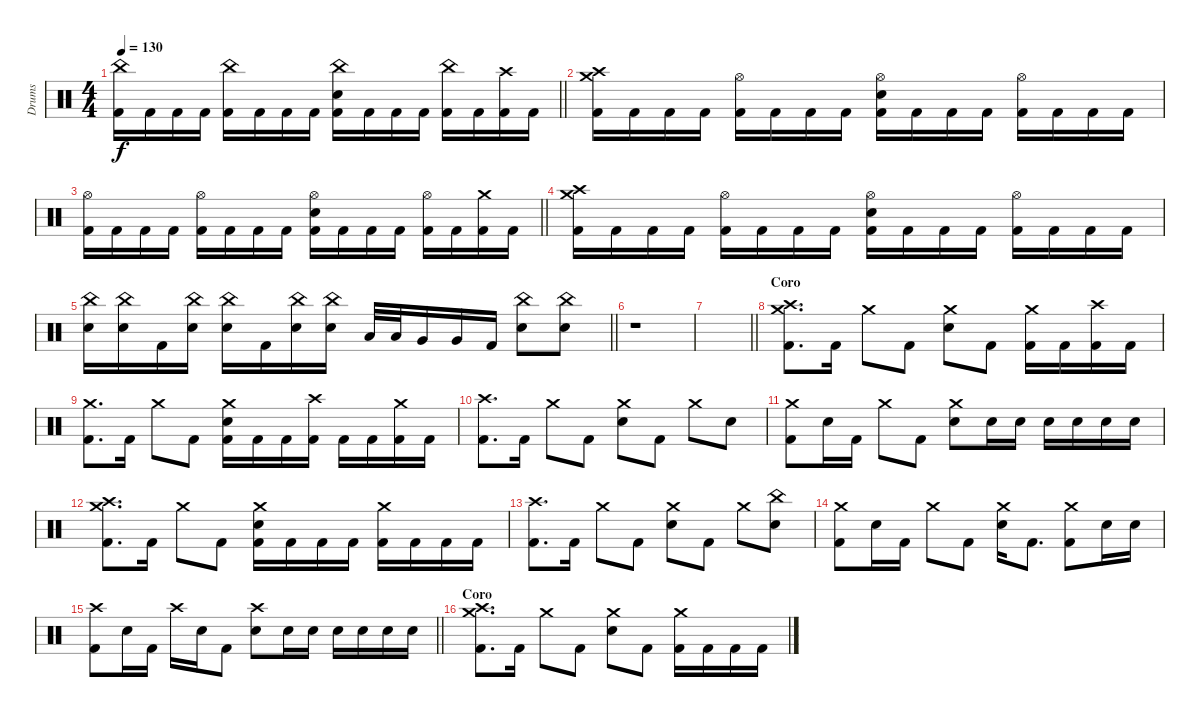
\track ("Drums" "Drums") {instrument percussion}
\staff {score}
\articulation defaults
\ts (4 4)
\tempo 130
\clef neutral
\barLineRight lightlight
\ks c
("China (hit)" "Kick (hit) 2").16{dy f} "Kick (hit) 2".16 "Kick (hit) 2".16 "Kick (hit) 2".16 ("China (hit)" "Kick (hit) 2").16 "Kick (hit) 2".16 "Kick (hit) 2".16 "Kick (hit) 2".16 ("China (hit)" "Electric Snare (hit)" "Kick (hit) 2").16 "Kick (hit) 2".16 "Kick (hit) 2".16 "Kick (hit) 2".16 ("China (hit)" "Kick (hit) 2").16 "Kick (hit) 2".16 ("Crash high (hit)" "Kick (hit) 2").16 "Kick (hit) 2".16 |
("Crash high (hit)" "Crash medium (hit)" "Kick (hit) 2").16 "Kick (hit) 2".16 "Kick (hit) 2".16 "Kick (hit) 2".16 ("Hi-Hat (open)" "Kick (hit) 2").16 "Kick (hit) 2".16 "Kick (hit) 2".16 "Kick (hit) 2".16 ("Hi-Hat (open)" "Electric Snare (hit)" "Kick (hit) 2").16 "Kick (hit) 2".16 "Kick (hit) 2".16 "Kick (hit) 2".16 ("Hi-Hat (open)" "Kick (hit) 2").16 "Kick (hit) 2".16 "Kick (hit) 2".16 "Kick (hit) 2".16 |
\barLineRight lightlight
("Hi-Hat (open)" "Kick (hit) 2").16 "Kick (hit) 2".16 "Kick (hit) 2".16 "Kick (hit) 2".16 ("Hi-Hat (open)" "Kick (hit) 2").16 "Kick (hit) 2".16 "Kick (hit) 2".16 "Kick (hit) 2".16 ("Hi-Hat (open)" "Electric Snare (hit)" "Kick (hit) 2").16 "Kick (hit) 2".16 "Kick (hit) 2".16 "Kick (hit) 2".16 ("Hi-Hat (open)" "Kick (hit) 2").16 "Kick (hit) 2".16 ("Crash medium (hit)" "Kick (hit) 2").16 "Kick (hit) 2".16 |
("Crash medium (hit)" "Crash high (hit)" "Kick (hit) 2").16 "Kick (hit) 2".16 "Kick (hit) 2".16 "Kick (hit) 2".16 ("Hi-Hat (open)" "Kick (hit) 2").16 "Kick (hit) 2".16 "Kick (hit) 2".16 "Kick (hit) 2".16 ("Hi-Hat (open)" "Electric Snare (hit)" "Kick (hit) 2").16 "Kick (hit) 2".16 "Kick (hit) 2".16 "Kick (hit) 2".16 ("Hi-Hat (open)" "Kick (hit) 2").16 "Kick (hit) 2".16 "Kick (hit) 2".16 "Kick (hit) 2".16 |
\barLineRight lightlight
("China (hit)" "Electric Snare (hit)").16 ("China (hit)" "Electric Snare (hit)").16 "Kick (hit) 2".16 ("China (hit)" "Electric Snare (hit)").16 ("China (hit)" "Electric Snare (hit)").16 "Kick (hit) 2".16 ("China (hit)" "Electric Snare (hit)").16 ("China (hit)" "Electric Snare (hit)").16 "Low Tom (hit)".32 "Low Tom (hit)".32 "Very Low Tom (hit)".16 "Very Low Tom (hit)".16 "Kick (hit) 2".16 ("China (hit)" "Electric Snare (hit)").8 ("China (hit)" "Electric Snare (hit)").8 |
r.1 |
\barLineRight lightlight
|
\section ("" "Coro")
("Crash medium (hit)" "Crash high (hit)" "Kick (hit) 2").8{d} "Kick (hit) 2".16 "Crash medium (hit)".8 "Kick (hit) 2".8 ("Crash medium (hit)" "Electric Snare (hit)").8 "Kick (hit) 2".8 ("Crash medium (hit)" "Kick (hit) 2").16 "Kick (hit) 2".16 ("Crash high (hit)" "Kick (hit) 2").16 "Kick (hit) 2".16 |
("Crash medium (hit)" "Kick (hit) 2").8{d} "Kick (hit) 2".16 "Crash medium (hit)".8 "Kick (hit) 2".8 ("Crash medium (hit)" "Electric Snare (hit)" "Kick (hit) 2").16 "Kick (hit) 2".16 "Kick (hit) 2".16 ("Crash high (hit)" "Kick (hit) 2").16 "Kick (hit) 2".16 "Kick (hit) 2".16 ("Crash medium (hit)" "Kick (hit) 2").16 "Kick (hit) 2".16 |
("Crash high (hit)" "Kick (hit) 2").8{d} "Kick (hit) 2".16 "Crash medium (hit)".8 "Kick (hit) 2".8 ("Crash medium (hit)" "Electric Snare (hit)").8 "Kick (hit) 2".8 "Crash medium (hit)".8 "Electric Snare (hit)".8 |
("Crash medium (hit)" "Kick (hit) 2").8 "Electric Snare (hit)".16 "Kick (hit) 2".16 "Crash medium (hit)".8 "Kick (hit) 2".8 ("Crash medium (hit)" "Electric Snare (hit)").8 "Electric Snare (hit)".16 "Electric Snare (hit)".16 "Electric Snare (hit)".16 "Electric Snare (hit)".16 "Electric Snare (hit)".16 "Electric Snare (hit)".16 |
("Crash medium (hit)" "Crash high (hit)" "Kick (hit) 2").8{d} "Kick (hit) 2".16 "Crash medium (hit)".8 "Kick (hit) 2".8 ("Crash medium (hit)" "Electric Snare (hit)" "Kick (hit) 2").16 "Kick (hit) 2".16 "Kick (hit) 2".16 "Kick (hit) 2".16 ("Crash medium (hit)" "Kick (hit) 2").16 "Kick (hit) 2".16 "Kick (hit) 2".16 "Kick (hit) 2".16 |
("Crash high (hit)" "Kick (hit) 2").8{d} "Kick (hit) 2".16 "Crash medium (hit)".8 "Kick (hit) 2".8 ("Crash medium (hit)" "Electric Snare (hit)").8 "Kick (hit) 2".8 "Crash medium (hit)".8 ("China (hit)" "Electric Snare (hit)").8 |
("Crash medium (hit)" "Kick (hit) 2").8 "Electric Snare (hit)".16 "Kick (hit) 2".16 "Crash medium (hit)".8 "Kick (hit) 2".8 ("Crash medium (hit)" "Electric Snare (hit)").16 "Kick (hit) 2".8{d} ("Crash medium (hit)" "Kick (hit) 2").8 "Electric Snare (hit)".16 "Electric Snare (hit)".16 |
\barLineRight lightlight
("Crash high (hit)" "Kick (hit) 2").8 "Electric Snare (hit)".16 "Kick (hit) 2".16 "Crash high (hit)".16 "Electric Snare (hit)".16 "Kick (hit) 2".8 ("Crash high (hit)" "Electric Snare (hit)").8 "Electric Snare (hit)".16 "Electric Snare (hit)".16 "Electric Snare (hit)".16 "Electric Snare (hit)".16 "Electric Snare (hit)".16 "Electric Snare (hit)".16 |
\section ("" "Coro")
("Crash medium (hit)" "Crash high (hit)" "Kick (hit) 2").8{d} "Kick (hit) 2".16 "Crash medium (hit)".8 "Kick (hit) 2".8 ("Crash medium (hit)" "Electric Snare (hit)").8 "Kick (hit) 2".8 ("Crash medium (hit)" "Kick (hit) 2").16 "Kick (hit) 2".16 "Kick (hit) 2".16 "Kick (hit) 2".16
